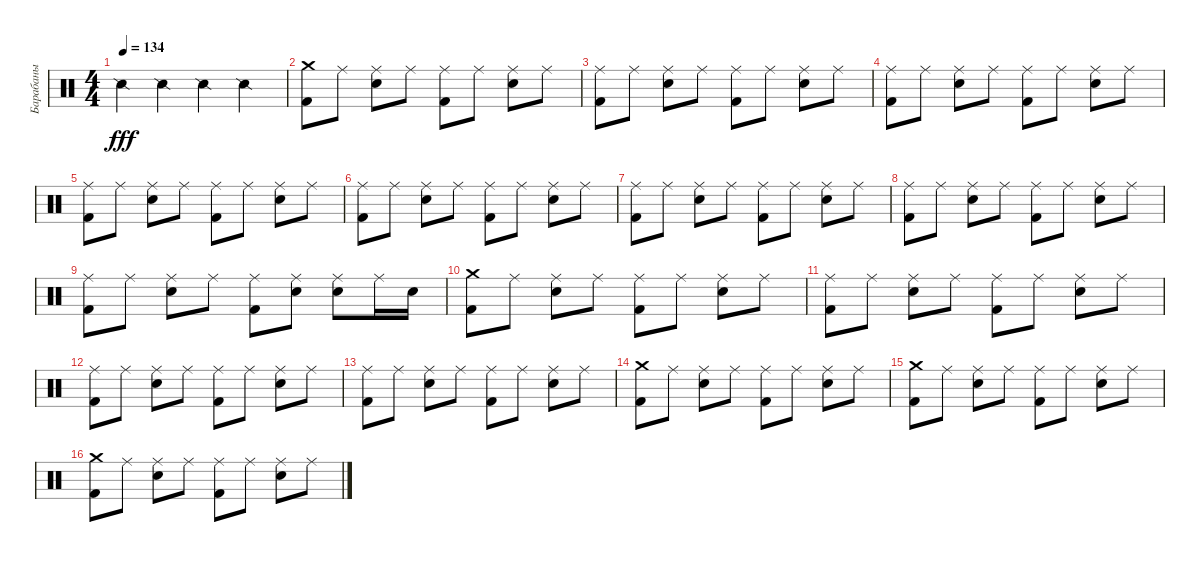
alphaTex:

\track ("Барабаны" "Барабаны") {instrument percussion}
\staff {score}
\articulation defaults
\ts (4 4)
\tempo 134
\clef neutral
\ks c "Snare (side stick) 2".4{dy fff} "Snare (side stick) 2".4 "Snare (side stick) 2".4 "Snare (side stick) 2".4
|
("Crash medium (hit)" "Kick (hit) 2").8 "Ride (middle)".8 ("Ride (middle)" "Electric Snare (hit)").8 "Ride (middle)".8 ("Ride (middle)" "Kick (hit) 2").8 "Ride (middle)".8 ("Ride (middle)" "Electric Snare (hit)").8 "Ride (middle)".8 |
("Ride (middle)" "Kick (hit) 2").8 "Ride (middle)".8 ("Ride (middle)" "Electric Snare (hit)").8 "Ride (middle)".8 ("Ride (middle)" "Kick (hit) 2").8 "Ride (middle)".8 ("Ride (middle)" "Electric Snare (hit)").8 "Ride (middle)".8 |
("Ride (middle)" "Kick (hit) 2").8 "Ride (middle)".8 ("Ride (middle)" "Electric Snare (hit)").8 "Ride (middle)".8 ("Ride (middle)" "Kick (hit) 2").8 "Ride (middle)".8 ("Ride (middle)" "Electric Snare (hit)").8 "Ride (middle)".8 |
("Ride (middle)" "Kick (hit) 2").8 "Ride (middle)".8 ("Ride (middle)" "Electric Snare (hit)").8 "Ride (middle)".8 ("Ride (middle)" "Kick (hit) 2").8 "Ride (middle)".8 ("Ride (middle)" "Electric Snare (hit)").8 "Ride (middle)".8 |
("Ride (middle)" "Kick (hit) 2").8 "Ride (middle)".8 ("Ride (middle)" "Electric Snare (hit)").8 "Ride (middle)".8 ("Ride (middle)" "Kick (hit) 2").8 "Ride (middle)".8 ("Ride (middle)" "Electric Snare (hit)").8 "Ride (middle)".8 |
("Ride (middle)" "Kick (hit) 2").8 "Ride (middle)".8 ("Ride (middle)" "Electric Snare (hit)").8 "Ride (middle)".8 ("Ride (middle)" "Kick (hit) 2").8 "Ride (middle)".8 ("Ride (middle)" "Electric Snare (hit)").8 "Ride (middle)".8 |
("Ride (middle)" "Kick (hit) 2").8 "Ride (middle)".8 ("Ride (middle)" "Electric Snare (hit)").8 "Ride (middle)".8 ("Ride (middle)" "Kick (hit) 2").8 "Ride (middle)".8 ("Ride (middle)" "Electric Snare (hit)").8 "Ride (middle)".8 |
("Ride (middle)" "Kick (hit) 2").8 "Ride (middle)".8 ("Ride (middle)" "Electric Snare (hit)").8 "Ride (middle)".8 ("Ride (middle)" "Kick (hit) 2").8 ("Ride (middle)" "Electric Snare (hit)").8 ("Ride (middle)" "Electric Snare (hit)").8 "Ride (middle)".16 "Electric Snare (hit)".16 |
("Crash medium (hit)" "Kick (hit) 2").8 "Ride (middle)".8 ("Ride (middle)" "Electric Snare (hit)").8 "Ride (middle)".8 ("Ride (middle)" "Kick (hit) 2").8 "Ride (middle)".8 ("Ride (middle)" "Electric Snare (hit)").8 "Ride (middle)".8 |
("Ride (middle)" "Kick (hit) 2").8 "Ride (middle)".8 ("Ride (middle)" "Electric Snare (hit)").8 "Ride (middle)".8 ("Ride (middle)" "Kick (hit) 2").8 "Ride (middle)".8 ("Ride (middle)" "Electric Snare (hit)").8 "Ride (middle)".8 |
("Ride (middle)" "Kick (hit) 2").8 "Ride (middle)".8 ("Ride (middle)" "Electric Snare (hit)").8 "Ride (middle)".8 ("Ride (middle)" "Kick (hit) 2").8 "Ride (middle)".8 ("Ride (middle)" "Electric Snare (hit)").8 "Ride (middle)".8 |
("Ride (middle)" "Kick (hit) 2").8 "Ride (middle)".8 ("Ride (middle)" "Electric Snare (hit)").8 "Ride (middle)".8 ("Ride (middle)" "Kick (hit) 2").8 "Ride (middle)".8 ("Ride (middle)" "Electric Snare (hit)").8 "Ride (middle)".8 |
("Crash medium (hit)" "Kick (hit) 2").8 "Ride (middle)".8 ("Ride (middle)" "Electric Snare (hit)").8 "Ride (middle)".8 ("Ride (middle)" "Kick (hit) 2").8 "Ride (middle)".8 ("Ride (middle)" "Electric Snare (hit)").8 "Ride (middle)".8 |
("Crash medium (hit)" "Kick (hit) 2").8 "Ride (middle)".8 ("Ride (middle)" "Electric Snare (hit)").8 "Ride (middle)".8 ("Ride (middle)" "Kick (hit) 2").8 "Ride (middle)".8 ("Ride (middle)" "Electric Snare (hit)").8 "Ride (middle)".8 |
("Crash medium (hit)" "Kick (hit) 2").8 "Ride (middle)".8 ("Ride (middle)" "Electric Snare (hit)").8 "Ride (middle)".8 ("Ride (middle)" "Kick (hit) 2").8 "Ride (middle)".8 ("Ride (middle)" "Electric Snare (hit)").8 "Ride (middle)".8
